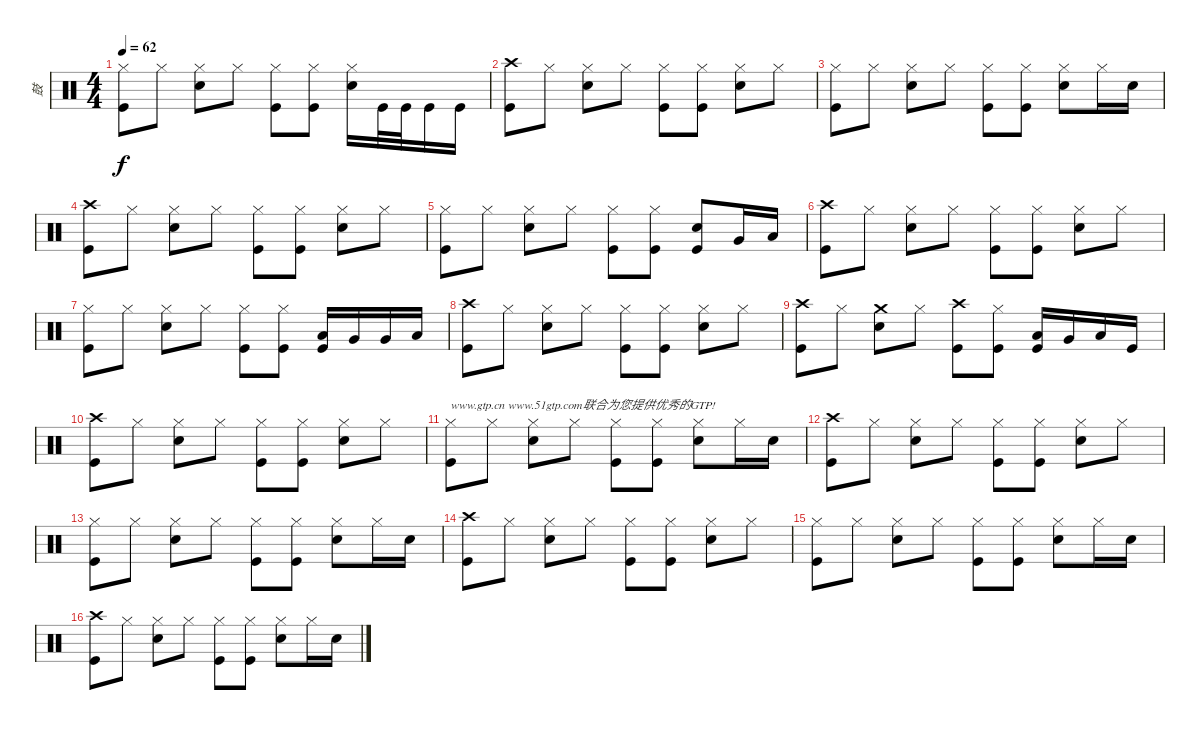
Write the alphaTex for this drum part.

\track ("鼓" "鼓") {instrument percussion}
\staff {score}
\articulation defaults
\ts (4 4)
\tempo 62
\clef neutral
\ks c
("Kick (hit)" "Hi-Hat (closed)").8{dy f} "Hi-Hat (closed)".8 ("Snare (hit) 2" "Hi-Hat (closed)").8 "Hi-Hat (closed)".8 ("Kick (hit)" "Hi-Hat (closed)").8 ("Kick (hit)" "Hi-Hat (closed)").8 ("Snare (hit) 2" "Hi-Hat (closed)").16 "Kick (hit)".32 "Kick (hit)".32 "Kick (hit)".16 "Kick (hit)".16 |
("Kick (hit)" "Crash high (hit)").8 "Hi-Hat (closed)".8 ("Snare (hit) 2" "Hi-Hat (closed)").8 "Hi-Hat (closed)".8 ("Kick (hit)" "Hi-Hat (closed)").8 ("Kick (hit)" "Hi-Hat (closed)").8 ("Snare (hit) 2" "Hi-Hat (closed)").8 "Hi-Hat (closed)".8 |
("Kick (hit)" "Hi-Hat (closed)").8 "Hi-Hat (closed)".8 ("Snare (hit) 2" "Hi-Hat (closed)").8 "Hi-Hat (closed)".8 ("Kick (hit)" "Hi-Hat (closed)").8 ("Kick (hit)" "Hi-Hat (closed)").8 ("Snare (hit) 2" "Hi-Hat (closed)").8 "Hi-Hat (closed)".16 "Snare (hit) 2".16 |
("Kick (hit)" "Crash high (hit)").8 "Hi-Hat (closed)".8 ("Snare (hit) 2" "Hi-Hat (closed)").8 "Hi-Hat (closed)".8 ("Kick (hit)" "Hi-Hat (closed)").8 ("Kick (hit)" "Hi-Hat (closed)").8 ("Snare (hit) 2" "Hi-Hat (closed)").8 "Hi-Hat (closed)".8 |
("Kick (hit)" "Hi-Hat (closed)").8 "Hi-Hat (closed)".8 ("Snare (hit) 2" "Hi-Hat (closed)").8 "Hi-Hat (closed)".8 ("Kick (hit)" "Hi-Hat (closed)").8 ("Kick (hit)" "Hi-Hat (closed)").8 ("Snare (hit) 2" "Kick (hit)").8 "Very Low Tom (hit)".16 "Low Floor Tom (hit)".16 |
("Kick (hit)" "Crash high (hit)").8 "Hi-Hat (closed)".8 ("Snare (hit) 2" "Hi-Hat (closed)").8 "Hi-Hat (closed)".8 ("Kick (hit)" "Hi-Hat (closed)").8 ("Kick (hit)" "Hi-Hat (closed)").8 ("Snare (hit) 2" "Hi-Hat (closed)").8 "Hi-Hat (closed)".8 |
("Kick (hit)" "Hi-Hat (closed)").8 "Hi-Hat (closed)".8 ("Snare (hit) 2" "Hi-Hat (closed)").8 "Hi-Hat (closed)".8 ("Kick (hit)" "Hi-Hat (closed)").8 ("Kick (hit)" "Hi-Hat (closed)").8 ("Low Tom (hit)" "Kick (hit)").16 "Very Low Tom (hit)".16 "Very Low Tom (hit)".16 "Low Floor Tom (hit)".16 |
("Kick (hit)" "Crash high (hit)").8 "Hi-Hat (closed)".8 ("Snare (hit) 2" "Hi-Hat (closed)").8 "Hi-Hat (closed)".8 ("Kick (hit)" "Hi-Hat (closed)").8 ("Kick (hit)" "Hi-Hat (closed)").8 ("Snare (hit) 2" "Hi-Hat (closed)").8 "Hi-Hat (closed)".8 |
("Kick (hit)" "Crash high (hit)").8 "Hi-Hat (closed)".8 ("Snare (hit) 2" "Crash medium (hit)").8 "Hi-Hat (closed)".8 ("Kick (hit)" "Crash high (hit)").8 ("Kick (hit)" "Hi-Hat (closed)").8 ("Kick (hit)" "Low Tom (hit)").16 "Very Low Tom (hit)".16 "Low Floor Tom (hit)".16 "Kick (hit)".16 |
("Kick (hit)" "Crash high (hit)").8 "Hi-Hat (closed)".8 ("Snare (hit) 2" "Hi-Hat (closed)").8 "Hi-Hat (closed)".8 ("Kick (hit)" "Hi-Hat (closed)").8 ("Kick (hit)" "Hi-Hat (closed)").8 ("Snare (hit) 2" "Hi-Hat (closed)").8 "Hi-Hat (closed)".8 |
("Kick (hit)" "Hi-Hat (closed)").8{txt "www.gtp.cn www.51gtp.com联合为您提供优秀的GTP!"} "Hi-Hat (closed)".8 ("Snare (hit) 2" "Hi-Hat (closed)").8 "Hi-Hat (closed)".8 ("Kick (hit)" "Hi-Hat (closed)").8 ("Kick (hit)" "Hi-Hat (closed)").8 ("Snare (hit) 2" "Hi-Hat (closed)").8 "Hi-Hat (closed)".16 "Snare (hit) 2".16 |
("Kick (hit)" "Crash high (hit)").8 "Hi-Hat (closed)".8 ("Snare (hit) 2" "Hi-Hat (closed)").8 "Hi-Hat (closed)".8 ("Kick (hit)" "Hi-Hat (closed)").8 ("Kick (hit)" "Hi-Hat (closed)").8 ("Snare (hit) 2" "Hi-Hat (closed)").8 "Hi-Hat (closed)".8 |
("Kick (hit)" "Hi-Hat (closed)").8 "Hi-Hat (closed)".8 ("Snare (hit) 2" "Hi-Hat (closed)").8 "Hi-Hat (closed)".8 ("Kick (hit)" "Hi-Hat (closed)").8 ("Kick (hit)" "Hi-Hat (closed)").8 ("Snare (hit) 2" "Hi-Hat (closed)").8 "Hi-Hat (closed)".16 "Snare (hit) 2".16 |
("Kick (hit)" "Crash high (hit)").8 "Hi-Hat (closed)".8 ("Snare (hit) 2" "Hi-Hat (closed)").8 "Hi-Hat (closed)".8 ("Kick (hit)" "Hi-Hat (closed)").8 ("Kick (hit)" "Hi-Hat (closed)").8 ("Snare (hit) 2" "Hi-Hat (closed)").8 "Hi-Hat (closed)".8 |
("Kick (hit)" "Hi-Hat (closed)").8 "Hi-Hat (closed)".8 ("Snare (hit) 2" "Hi-Hat (closed)").8 "Hi-Hat (closed)".8 ("Kick (hit)" "Hi-Hat (closed)").8 ("Kick (hit)" "Hi-Hat (closed)").8 ("Snare (hit) 2" "Hi-Hat (closed)").8 "Hi-Hat (closed)".16 "Snare (hit) 2".16 |
("Kick (hit)" "Crash high (hit)").8 "Hi-Hat (closed)".8 ("Snare (hit) 2" "Hi-Hat (closed)").8 "Hi-Hat (closed)".8 ("Kick (hit)" "Hi-Hat (closed)").8 ("Kick (hit)" "Hi-Hat (closed)").8 ("Snare (hit) 2" "Hi-Hat (closed)").8 "Hi-Hat (closed)".16 "Snare (hit) 2".16
